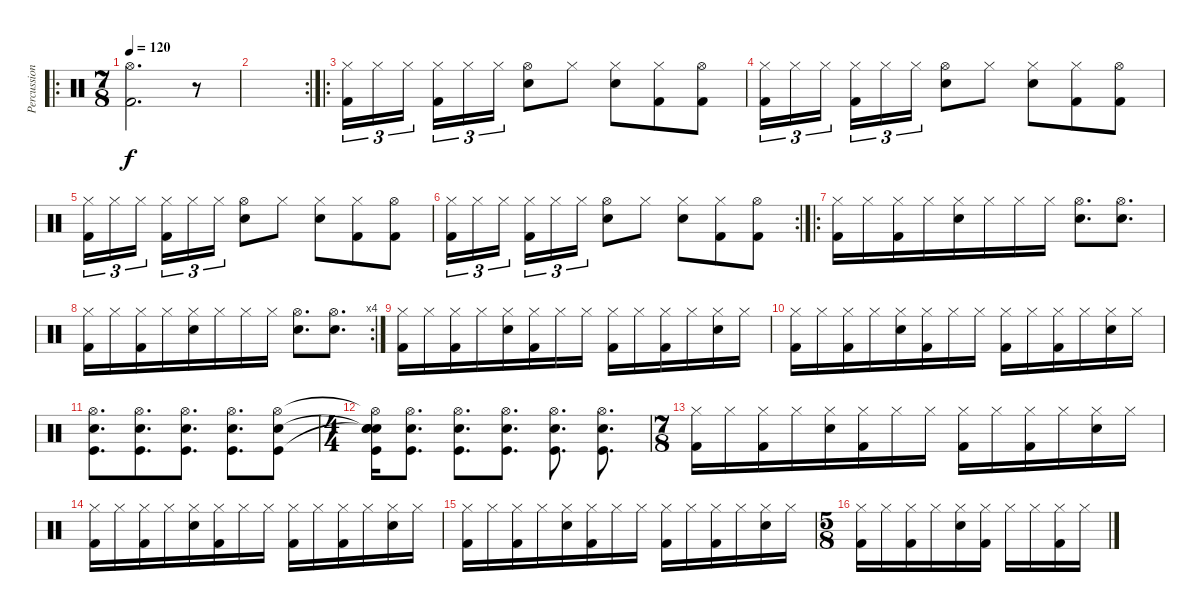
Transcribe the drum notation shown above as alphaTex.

\track ("Percussion" "Percussion") {instrument percussion}
\staff {score}
\articulation defaults
\ro
\ts (7 8)
\tempo 120
\clef neutral
\ks c
("Hi-Hat (open)" "Kick (hit) 2").2{d dy f} r.8 |
\rc 2
|
\ro
("Hi-Hat (closed)" "Kick (hit) 2").16{tu (3 2)} "Hi-Hat (closed)".16{tu (3 2)} "Hi-Hat (closed)".16{tu (3 2)} ("Hi-Hat (closed)" "Kick (hit) 2").16{tu (3 2)} "Hi-Hat (closed)".16{tu (3 2)} "Hi-Hat (closed)".16{tu (3 2)} ("Hi-Hat (open)" "Snare (hit) 2").8 "Hi-Hat (closed)".8 ("Hi-Hat (closed)" "Snare (hit) 2").8 ("Hi-Hat (closed)" "Kick (hit) 2").8 ("Hi-Hat (open)" "Kick (hit) 2").8 |
("Hi-Hat (closed)" "Kick (hit) 2").16{tu (3 2)} "Hi-Hat (closed)".16{tu (3 2)} "Hi-Hat (closed)".16{tu (3 2)} ("Hi-Hat (closed)" "Kick (hit) 2").16{tu (3 2)} "Hi-Hat (closed)".16{tu (3 2)} "Hi-Hat (closed)".16{tu (3 2)} ("Hi-Hat (open)" "Snare (hit) 2").8 "Hi-Hat (closed)".8 ("Hi-Hat (closed)" "Snare (hit) 2").8 ("Hi-Hat (closed)" "Kick (hit) 2").8 ("Hi-Hat (open)" "Kick (hit) 2").8 |
("Hi-Hat (closed)" "Kick (hit) 2").16{tu (3 2)} "Hi-Hat (closed)".16{tu (3 2)} "Hi-Hat (closed)".16{tu (3 2)} ("Hi-Hat (closed)" "Kick (hit) 2").16{tu (3 2)} "Hi-Hat (closed)".16{tu (3 2)} "Hi-Hat (closed)".16{tu (3 2)} ("Hi-Hat (open)" "Snare (hit) 2").8 "Hi-Hat (closed)".8 ("Hi-Hat (closed)" "Snare (hit) 2").8 ("Hi-Hat (closed)" "Kick (hit) 2").8 ("Hi-Hat (open)" "Kick (hit) 2").8 |
\rc 2
("Hi-Hat (closed)" "Kick (hit) 2").16{tu (3 2)} "Hi-Hat (closed)".16{tu (3 2)} "Hi-Hat (closed)".16{tu (3 2)} ("Hi-Hat (closed)" "Kick (hit) 2").16{tu (3 2)} "Hi-Hat (closed)".16{tu (3 2)} "Hi-Hat (closed)".16{tu (3 2)} ("Hi-Hat (open)" "Snare (hit) 2").8 "Hi-Hat (closed)".8 ("Hi-Hat (closed)" "Snare (hit) 2").8 ("Hi-Hat (closed)" "Kick (hit) 2").8 ("Hi-Hat (open)" "Kick (hit) 2").8 |
\ro
("Hi-Hat (closed)" "Kick (hit) 2").16 "Hi-Hat (closed)".16 ("Hi-Hat (closed)" "Kick (hit) 2").16 "Hi-Hat (closed)".16 ("Hi-Hat (closed)" "Snare (hit) 2").16 "Hi-Hat (closed)".16 "Hi-Hat (closed)".16 "Hi-Hat (closed)".16 ("Hi-Hat (open)" "Snare (hit) 2").8{d} ("Hi-Hat (open)" "Snare (hit) 2").8{d} |
\rc 4
("Hi-Hat (closed)" "Kick (hit) 2").16 "Hi-Hat (closed)".16 ("Hi-Hat (closed)" "Kick (hit) 2").16 "Hi-Hat (closed)".16 ("Hi-Hat (closed)" "Snare (hit) 2").16 "Hi-Hat (closed)".16 "Hi-Hat (closed)".16 "Hi-Hat (closed)".16 ("Hi-Hat (open)" "Snare (hit) 2").8{d} ("Hi-Hat (open)" "Snare (hit) 2").8{d} |
("Hi-Hat (closed)" "Kick (hit) 2").16 "Hi-Hat (closed)".16 ("Hi-Hat (closed)" "Kick (hit) 2").16 "Hi-Hat (closed)".16 ("Hi-Hat (closed)" "Snare (hit) 2").16 ("Hi-Hat (closed)" "Kick (hit) 2").16 "Hi-Hat (closed)".16 "Hi-Hat (closed)".16 ("Hi-Hat (closed)" "Kick (hit) 2").16 "Hi-Hat (closed)".16 ("Hi-Hat (closed)" "Kick (hit) 2").16 "Hi-Hat (closed)".16 ("Hi-Hat (closed)" "Snare (hit) 2").16 "Hi-Hat (closed)".16 |
("Hi-Hat (closed)" "Kick (hit) 2").16 "Hi-Hat (closed)".16 ("Hi-Hat (closed)" "Kick (hit) 2").16 "Hi-Hat (closed)".16 ("Hi-Hat (closed)" "Snare (hit) 2").16 ("Hi-Hat (closed)" "Kick (hit) 2").16 "Hi-Hat (closed)".16 "Hi-Hat (closed)".16 ("Hi-Hat (closed)" "Kick (hit) 2").16 "Hi-Hat (closed)".16 ("Hi-Hat (closed)" "Kick (hit) 2").16 "Hi-Hat (closed)".16 ("Hi-Hat (closed)" "Snare (hit) 2").16 "Hi-Hat (closed)".16 |
("Hi-Hat (open)" "Electric Snare (hit)" "Kick (hit)").8{d} ("Hi-Hat (open)" "Electric Snare (hit)" "Kick (hit)").8{d} ("Hi-Hat (open)" "Electric Snare (hit)" "Kick (hit)").8{d} ("Hi-Hat (open)" "Electric Snare (hit)" "Kick (hit)").8{d} ("Hi-Hat (open)" "Electric Snare (hit)" "Kick (hit)").8 |
\ts (4 4)
("Hi-Hat (open)"{t} "Snare (hit)"{t} "Electric Snare (hit)"{t} "Snare (hit)" "Kick (hit)").16 ("Hi-Hat (open)" "Electric Snare (hit)" "Kick (hit)").8{d} ("Hi-Hat (open)" "Electric Snare (hit)" "Kick (hit)").8{d} ("Hi-Hat (open)" "Electric Snare (hit)" "Kick (hit)").8{d} ("Hi-Hat (open)" "Electric Snare (hit)" "Kick (hit)").8{d} ("Hi-Hat (open)" "Electric Snare (hit)" "Kick (hit)").8{d} |
\ts (7 8)
("Hi-Hat (closed)" "Kick (hit) 2").16 "Hi-Hat (closed)".16 ("Hi-Hat (closed)" "Kick (hit) 2").16 "Hi-Hat (closed)".16 ("Hi-Hat (closed)" "Snare (hit) 2").16 ("Hi-Hat (closed)" "Kick (hit) 2").16 "Hi-Hat (closed)".16 "Hi-Hat (closed)".16 ("Hi-Hat (closed)" "Kick (hit) 2").16 "Hi-Hat (closed)".16 ("Hi-Hat (closed)" "Kick (hit) 2").16 "Hi-Hat (closed)".16 ("Hi-Hat (closed)" "Snare (hit) 2").16 "Hi-Hat (closed)".16 |
("Hi-Hat (closed)" "Kick (hit) 2").16 "Hi-Hat (closed)".16 ("Hi-Hat (closed)" "Kick (hit) 2").16 "Hi-Hat (closed)".16 ("Hi-Hat (closed)" "Snare (hit) 2").16 ("Hi-Hat (closed)" "Kick (hit) 2").16 "Hi-Hat (closed)".16 "Hi-Hat (closed)".16 ("Hi-Hat (closed)" "Kick (hit) 2").16 "Hi-Hat (closed)".16 ("Hi-Hat (closed)" "Kick (hit) 2").16 "Hi-Hat (closed)".16 ("Hi-Hat (closed)" "Snare (hit) 2").16 "Hi-Hat (closed)".16 |
("Hi-Hat (closed)" "Kick (hit) 2").16 "Hi-Hat (closed)".16 ("Hi-Hat (closed)" "Kick (hit) 2").16 "Hi-Hat (closed)".16 ("Hi-Hat (closed)" "Snare (hit) 2").16 ("Hi-Hat (closed)" "Kick (hit) 2").16 "Hi-Hat (closed)".16 "Hi-Hat (closed)".16 ("Hi-Hat (closed)" "Kick (hit) 2").16 "Hi-Hat (closed)".16 ("Hi-Hat (closed)" "Kick (hit) 2").16 "Hi-Hat (closed)".16 ("Hi-Hat (closed)" "Snare (hit) 2").16 "Hi-Hat (closed)".16 |
\ts (5 8)
("Hi-Hat (closed)" "Kick (hit) 2").16 "Hi-Hat (closed)".16 ("Hi-Hat (closed)" "Kick (hit) 2").16 "Hi-Hat (closed)".16 ("Hi-Hat (closed)" "Snare (hit) 2").16 ("Hi-Hat (closed)" "Kick (hit) 2").16 "Hi-Hat (closed)".16 "Hi-Hat (closed)".16 ("Hi-Hat (closed)" "Kick (hit) 2").16 "Hi-Hat (closed)".16
